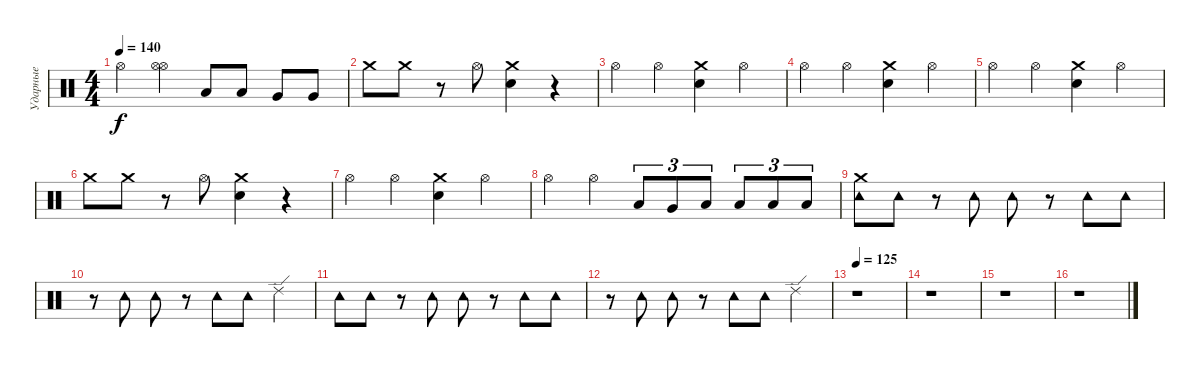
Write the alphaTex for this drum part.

\track ("Ударные" "Ударные") {instrument percussion}
\staff {score}
\articulation defaults
\ts (4 4)
\tempo 140
\clef neutral
\ks c "Hi-Hat (open)".4{dy f}
("Hi-Hat (open)" "Hi-Hat (open)").4 "Low Tom (hit)".8 "Low Tom (hit)".8 "Very Low Tom (hit)".8 "Very Low Tom (hit)".8 |
"Crash medium (hit)".8 "Crash medium (hit)".8 r.8 "Hi-Hat (open)".8 ("Crash medium (hit)" "Electric Snare (hit)").4 r.4 |
"Hi-Hat (open)".4 "Hi-Hat (open)".4 ("Crash medium (hit)" "Electric Snare (hit)").4 "Hi-Hat (open)".4 |
"Hi-Hat (open)".4 "Hi-Hat (open)".4 ("Crash medium (hit)" "Electric Snare (hit)").4 "Hi-Hat (open)".4 |
"Hi-Hat (open)".4 "Hi-Hat (open)".4 ("Crash medium (hit)" "Electric Snare (hit)").4 "Hi-Hat (open)".4 |
"Crash medium (hit)".8 "Crash medium (hit)".8 r.8 "Hi-Hat (open)".8 ("Crash medium (hit)" "Electric Snare (hit)").4 r.4 |
"Hi-Hat (open)".4 "Hi-Hat (open)".4 ("Crash medium (hit)" "Electric Snare (hit)").4 "Hi-Hat (open)".4 |
"Hi-Hat (open)".4 "Hi-Hat (open)".4 "Low Tom (hit)".8{tu (3 2)} "Very Low Tom (hit)".8{tu (3 2)} "Low Floor Tom (hit)".8{tu (3 2)} "Low Floor Tom (hit)".8{tu (3 2)} "Low Floor Tom (hit)".8{tu (3 2)} "Low Floor Tom (hit)".8{tu (3 2)} |
("Crash medium (hit)" "Tambourine (hit)").8 "Tambourine (hit)".8 r.8 "Tambourine (hit)".8 "Tambourine (hit)".8 r.8 "Tambourine (hit)".8 "Tambourine (hit)".8 |
r.8 "Tambourine (hit)".8 "Tambourine (hit)".8 r.8 "Tambourine (hit)".8 "Tambourine (hit)".8 "Ride (edge) 2".4 |
"Tambourine (hit)".8 "Tambourine (hit)".8 r.8 "Tambourine (hit)".8 "Tambourine (hit)".8 r.8 "Tambourine (hit)".8 "Tambourine (hit)".8 |
r.8 "Tambourine (hit)".8 "Tambourine (hit)".8 r.8 "Tambourine (hit)".8 "Tambourine (hit)".8 "Ride (edge) 2".4 |
\tempo 125
r.1 |
r.1 |
r.1 |
r.1
